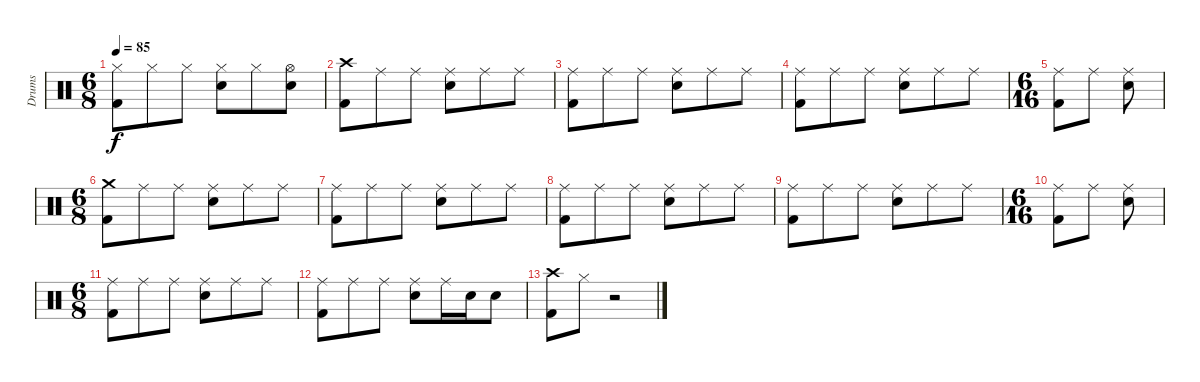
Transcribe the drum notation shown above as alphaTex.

\track ("Drums" "Drums") {instrument percussion}
\staff {score}
\articulation defaults
\ts (6 8)
\tempo 85
\clef neutral
\ks c
("Hi-Hat (closed)" "Kick (hit) 2").8{dy f} "Hi-Hat (closed)".8 "Hi-Hat (closed)".8 ("Hi-Hat (closed)" "Snare (hit) 2").8 "Hi-Hat (closed)".8 ("Hi-Hat (open)" "Snare (hit) 2").8 |
("Crash high (hit)" "Kick (hit) 2").8 "Ride (middle)".8 "Ride (middle)".8 ("Ride (middle)" "Snare (hit) 2").8 "Ride (middle)".8 "Ride (middle)".8 |
("Ride (middle)" "Kick (hit) 2").8 "Ride (middle)".8 "Ride (middle)".8 ("Ride (middle)" "Snare (hit) 2").8 "Ride (middle)".8 "Ride (middle)".8 |
("Ride (middle)" "Kick (hit) 2").8 "Ride (middle)".8 "Ride (middle)".8 ("Ride (middle)" "Snare (hit) 2").8 "Ride (middle)".8 "Ride (middle)".8 |
\ts (6 16)
("Ride (middle)" "Kick (hit) 2").8 "Ride (middle)".8 ("Ride (middle)" "Snare (hit) 2").8 |
\ts (6 8)
("Crash medium (hit)" "Kick (hit) 2").8 "Ride (middle)".8 "Ride (middle)".8 ("Ride (middle)" "Snare (hit) 2").8 "Ride (middle)".8 "Ride (middle)".8 |
("Ride (middle)" "Kick (hit) 2").8 "Ride (middle)".8 "Ride (middle)".8 ("Ride (middle)" "Snare (hit) 2").8 "Ride (middle)".8 "Ride (middle)".8 |
("Ride (middle)" "Kick (hit) 2").8 "Ride (middle)".8 "Ride (middle)".8 ("Ride (middle)" "Snare (hit) 2").8 "Ride (middle)".8 "Ride (middle)".8 |
("Ride (middle)" "Kick (hit) 2").8 "Ride (middle)".8 "Ride (middle)".8 ("Ride (middle)" "Snare (hit) 2").8 "Ride (middle)".8 "Ride (middle)".8 |
\ts (6 16)
("Ride (middle)" "Kick (hit) 2").8 "Ride (middle)".8 ("Ride (middle)" "Snare (hit) 2").8 |
\ts (6 8)
("Ride (middle)" "Kick (hit) 2").8 "Ride (middle)".8 "Ride (middle)".8 ("Ride (middle)" "Snare (hit) 2").8 "Ride (middle)".8 "Ride (middle)".8 |
("Ride (middle)" "Kick (hit) 2").8 "Ride (middle)".8 "Ride (middle)".8 ("Ride (middle)" "Snare (hit) 2").8 "Ride (middle)".16 "Snare (hit) 2".16 "Snare (hit) 2".8 |
("Crash high (hit)" "Kick (hit) 2").8 "Hi-Hat (closed)".8 r.2
